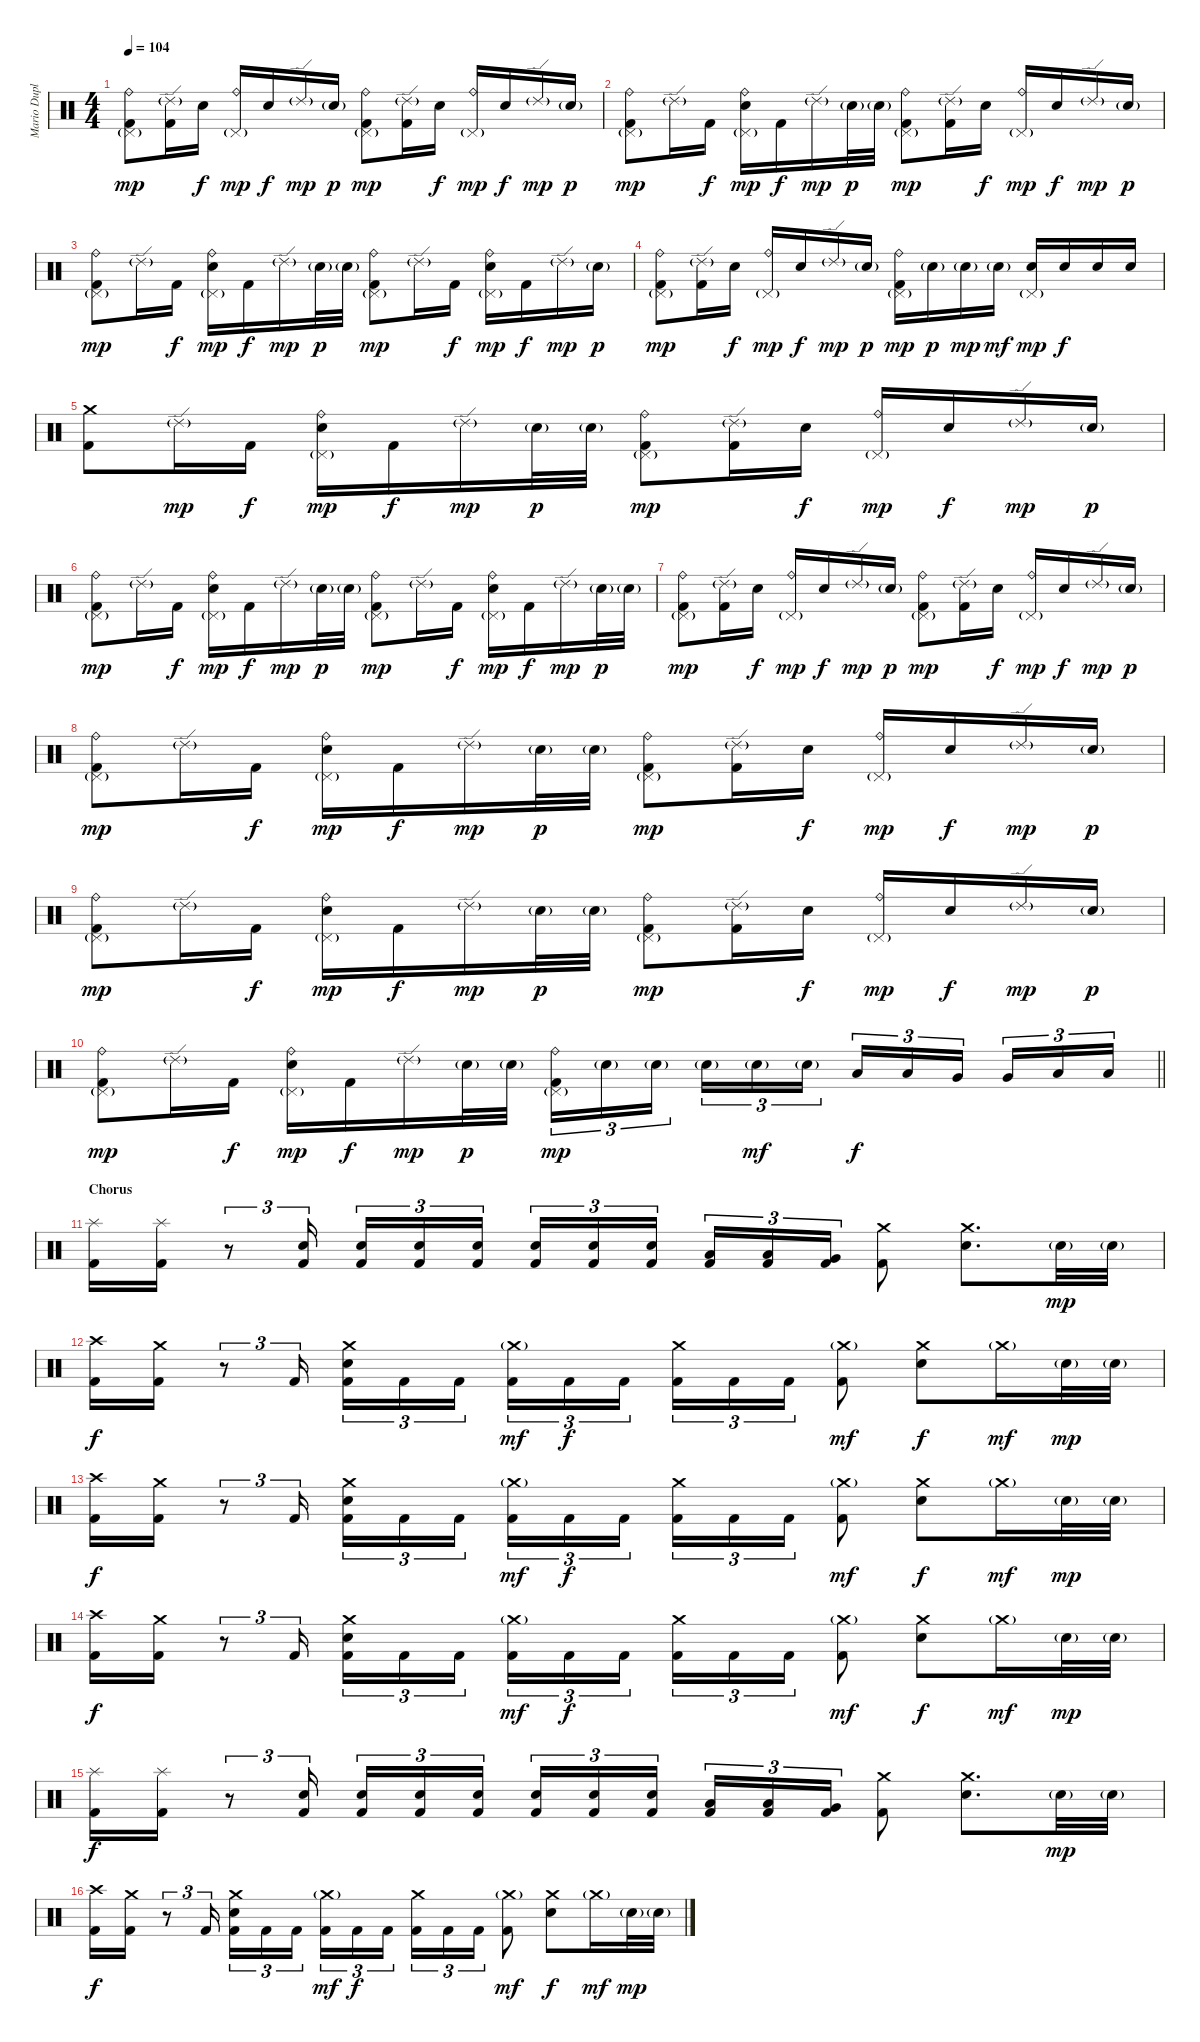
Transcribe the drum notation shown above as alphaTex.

\track ("Mario Duplantier" "Mario Dupl") {instrument percussion}
\staff {score}
\articulation defaults
\ts (4 4)
\tempo 104
\clef neutral
\ks c
("Ride (bell)" "Pedal Hi-Hat (hit)"{g} "Kick (hit) 2").8{dy mp} ("Ride (edge) 2"{g} "Kick (hit) 2").16 "Electric Snare (hit)".16{dy f} ("Ride (bell)" "Pedal Hi-Hat (hit)"{g}).16{dy mp} "Electric Snare (hit)".16{dy f} "Ride (edge) 2"{g}.16{dy mp} "Electric Snare (hit)"{g}.16{dy p} ("Ride (bell)" "Pedal Hi-Hat (hit)"{g} "Kick (hit) 2").8{dy mp} ("Ride (edge) 2"{g} "Kick (hit) 2").16 "Electric Snare (hit)".16{dy f} ("Ride (bell)" "Pedal Hi-Hat (hit)"{g}).16{dy mp} "Electric Snare (hit)".16{dy f} "Ride (edge) 2"{g}.16{dy mp} "Electric Snare (hit)"{g}.16{dy p} |
("Ride (bell)" "Pedal Hi-Hat (hit)"{g} "Kick (hit) 2").8{dy mp} "Ride (edge) 2"{g}.16 "Kick (hit) 2".16{dy f} ("Ride (bell)" "Pedal Hi-Hat (hit)"{g} "Electric Snare (hit)").16{dy mp} "Kick (hit) 2".16{dy f} "Ride (edge) 2"{g}.16{dy mp} "Electric Snare (hit)"{g}.32{dy p} "Electric Snare (hit)"{g}.32 ("Ride (bell)" "Pedal Hi-Hat (hit)"{g} "Kick (hit) 2").8{dy mp} ("Ride (edge) 2"{g} "Kick (hit) 2").16 "Electric Snare (hit)".16{dy f} ("Ride (bell)" "Pedal Hi-Hat (hit)"{g}).16{dy mp} "Electric Snare (hit)".16{dy f} "Ride (edge) 2"{g}.16{dy mp} "Electric Snare (hit)"{g}.16{dy p} |
("Ride (bell)" "Pedal Hi-Hat (hit)"{g} "Kick (hit) 2").8{dy mp} "Ride (edge) 2"{g}.16 "Kick (hit) 2".16{dy f} ("Ride (bell)" "Pedal Hi-Hat (hit)"{g} "Electric Snare (hit)").16{dy mp} "Kick (hit) 2".16{dy f} "Ride (edge) 2"{g}.16{dy mp} "Electric Snare (hit)"{g}.32{dy p} "Electric Snare (hit)"{g}.32 ("Ride (bell)" "Pedal Hi-Hat (hit)"{g} "Kick (hit) 2").8{dy mp} "Ride (edge) 2"{g}.16 "Kick (hit) 2".16{dy f} ("Ride (bell)" "Pedal Hi-Hat (hit)"{g} "Electric Snare (hit)").16{dy mp} "Kick (hit) 2".16{dy f} "Ride (edge) 2"{g}.16{dy mp} "Electric Snare (hit)"{g}.16{dy p} |
("Ride (bell)" "Pedal Hi-Hat (hit)"{g} "Kick (hit) 2").8{dy mp} ("Ride (edge) 2"{g} "Kick (hit) 2").16 "Electric Snare (hit)".16{dy f} ("Ride (bell)" "Pedal Hi-Hat (hit)"{g}).16{dy mp} "Electric Snare (hit)".16{dy f} "Ride (edge) 2"{g}.16{dy mp} "Electric Snare (hit)"{g}.16{dy p} ("Ride (bell)" "Pedal Hi-Hat (hit)"{g} "Kick (hit) 2").16{dy mp} "Electric Snare (hit)"{g}.16{dy p} "Electric Snare (hit)"{g}.16{dy mp} "Electric Snare (hit)"{g}.16{dy mf} ("Pedal Hi-Hat (hit)"{g} "Electric Snare (hit)").16{dy mp} "Electric Snare (hit)".16{dy f} "Electric Snare (hit)".16 "Electric Snare (hit)".16 |
("Crash medium (hit)" "Kick (hit) 2").8 "Ride (edge) 2"{g}.16{dy mp} "Kick (hit) 2".16{dy f} ("Ride (bell)" "Pedal Hi-Hat (hit)"{g} "Electric Snare (hit)").16{dy mp} "Kick (hit) 2".16{dy f} "Ride (edge) 2"{g}.16{dy mp} "Electric Snare (hit)"{g}.32{dy p} "Electric Snare (hit)"{g}.32 ("Ride (bell)" "Pedal Hi-Hat (hit)"{g} "Kick (hit) 2").8{dy mp} ("Ride (edge) 2"{g} "Kick (hit) 2").16 "Electric Snare (hit)".16{dy f} ("Ride (bell)" "Pedal Hi-Hat (hit)"{g}).16{dy mp} "Electric Snare (hit)".16{dy f} "Ride (edge) 2"{g}.16{dy mp} "Electric Snare (hit)"{g}.16{dy p} |
("Ride (bell)" "Pedal Hi-Hat (hit)"{g} "Kick (hit) 2").8{dy mp} "Ride (edge) 2"{g}.16 "Kick (hit) 2".16{dy f} ("Ride (bell)" "Pedal Hi-Hat (hit)"{g} "Electric Snare (hit)").16{dy mp} "Kick (hit) 2".16{dy f} "Ride (edge) 2"{g}.16{dy mp} "Electric Snare (hit)"{g}.32{dy p} "Electric Snare (hit)"{g}.32 ("Ride (bell)" "Pedal Hi-Hat (hit)"{g} "Kick (hit) 2").8{dy mp} "Ride (edge) 2"{g}.16 "Kick (hit) 2".16{dy f} ("Ride (bell)" "Pedal Hi-Hat (hit)"{g} "Electric Snare (hit)").16{dy mp} "Kick (hit) 2".16{dy f} "Ride (edge) 2"{g}.16{dy mp} "Electric Snare (hit)"{g}.32{dy p} "Electric Snare (hit)"{g}.32 |
("Ride (bell)" "Pedal Hi-Hat (hit)"{g} "Kick (hit) 2").8{dy mp} ("Ride (edge) 2"{g} "Kick (hit) 2").16 "Electric Snare (hit)".16{dy f} ("Ride (bell)" "Pedal Hi-Hat (hit)"{g}).16{dy mp} "Electric Snare (hit)".16{dy f} "Ride (edge) 2"{g}.16{dy mp} "Electric Snare (hit)"{g}.16{dy p} ("Ride (bell)" "Pedal Hi-Hat (hit)"{g} "Kick (hit) 2").8{dy mp} ("Ride (edge) 2"{g} "Kick (hit) 2").16 "Electric Snare (hit)".16{dy f} ("Ride (bell)" "Pedal Hi-Hat (hit)"{g}).16{dy mp} "Electric Snare (hit)".16{dy f} "Ride (edge) 2"{g}.16{dy mp} "Electric Snare (hit)"{g}.16{dy p} |
("Ride (bell)" "Pedal Hi-Hat (hit)"{g} "Kick (hit) 2").8{dy mp} "Ride (edge) 2"{g}.16 "Kick (hit) 2".16{dy f} ("Ride (bell)" "Pedal Hi-Hat (hit)"{g} "Electric Snare (hit)").16{dy mp} "Kick (hit) 2".16{dy f} "Ride (edge) 2"{g}.16{dy mp} "Electric Snare (hit)"{g}.32{dy p} "Electric Snare (hit)"{g}.32 ("Ride (bell)" "Pedal Hi-Hat (hit)"{g} "Kick (hit) 2").8{dy mp} ("Ride (edge) 2"{g} "Kick (hit) 2").16 "Electric Snare (hit)".16{dy f} ("Ride (bell)" "Pedal Hi-Hat (hit)"{g}).16{dy mp} "Electric Snare (hit)".16{dy f} "Ride (edge) 2"{g}.16{dy mp} "Electric Snare (hit)"{g}.16{dy p} |
("Ride (bell)" "Pedal Hi-Hat (hit)"{g} "Kick (hit) 2").8{dy mp} "Ride (edge) 2"{g}.16 "Kick (hit) 2".16{dy f} ("Ride (bell)" "Pedal Hi-Hat (hit)"{g} "Electric Snare (hit)").16{dy mp} "Kick (hit) 2".16{dy f} "Ride (edge) 2"{g}.16{dy mp} "Electric Snare (hit)"{g}.32{dy p} "Electric Snare (hit)"{g}.32 ("Ride (bell)" "Pedal Hi-Hat (hit)"{g} "Kick (hit) 2").8{dy mp} ("Ride (edge) 2"{g} "Kick (hit) 2").16 "Electric Snare (hit)".16{dy f} ("Ride (bell)" "Pedal Hi-Hat (hit)"{g}).16{dy mp} "Electric Snare (hit)".16{dy f} "Ride (edge) 2"{g}.16{dy mp} "Electric Snare (hit)"{g}.16{dy p} |
\barLineRight lightlight
("Ride (bell)" "Pedal Hi-Hat (hit)"{g} "Kick (hit) 2").8{dy mp} "Ride (edge) 2"{g}.16 "Kick (hit) 2".16{dy f} ("Ride (bell)" "Pedal Hi-Hat (hit)"{g} "Electric Snare (hit)").16{dy mp} "Kick (hit) 2".16{dy f} "Ride (edge) 2"{g}.16{dy mp} "Electric Snare (hit)"{g}.32{dy p} "Electric Snare (hit)"{g}.32 ("Ride (bell)" "Pedal Hi-Hat (hit)"{g} "Kick (hit) 2").16{tu (3 2) dy mp} "Electric Snare (hit)"{g}.16{tu (3 2)} "Electric Snare (hit)"{g}.16{tu (3 2) beam splitsecondary} "Electric Snare (hit)"{g}.16{tu (3 2)} "Electric Snare (hit)"{g}.16{tu (3 2) dy mf} "Electric Snare (hit)"{g}.16{tu (3 2)} "Low Tom (hit)".16{tu (3 2) dy f} "Low Tom (hit)".16{tu (3 2)} "Very Low Tom (hit)".16{tu (3 2) beam splitsecondary} "Very Low Tom (hit)".16{tu (3 2)} "Low Floor Tom (hit)".16{tu (3 2)} "Low Floor Tom (hit)".16{tu (3 2)} |
\section ("" "Chorus")
("Splash (hit)" "Kick (hit) 2").16 ("Splash (hit)" "Kick (hit) 2").16 r.8{tu (3 2)} ("Electric Snare (hit)" "Kick (hit) 2").16{tu (3 2)} ("Electric Snare (hit)" "Kick (hit) 2").16{tu (3 2)} ("Electric Snare (hit)" "Kick (hit) 2").16{tu (3 2)} ("Electric Snare (hit)" "Kick (hit) 2").16{tu (3 2) beam splitsecondary} ("Electric Snare (hit)" "Kick (hit) 2").16{tu (3 2)} ("Electric Snare (hit)" "Kick (hit) 2").16{tu (3 2)} ("Electric Snare (hit)" "Kick (hit) 2").16{tu (3 2)} ("Low Tom (hit)" "Kick (hit) 2").16{tu (3 2)} ("Low Tom (hit)" "Kick (hit) 2").16{tu (3 2)} ("Very Low Tom (hit)" "Kick (hit) 2").16{tu (3 2)} ("Crash medium (hit)" "Kick (hit) 2").8 ("Crash medium (hit)" "Electric Snare (hit)").8{d} "Electric Snare (hit)"{g}.32{dy mp} "Electric Snare (hit)"{g}.32 |
("Crash high (hit)" "Kick (hit) 2").16{dy f} ("Crash medium (hit)" "Kick (hit) 2").16 r.8{tu (3 2)} "Kick (hit) 2".16{tu (3 2)} ("Crash medium (hit)" "Electric Snare (hit)" "Kick (hit) 2").16{tu (3 2)} "Kick (hit) 2".16{tu (3 2)} "Kick (hit) 2".16{tu (3 2) beam splitsecondary} ("Crash medium (hit)"{g} "Kick (hit) 2").16{tu (3 2) dy mf} "Kick (hit) 2".16{tu (3 2) dy f} "Kick (hit) 2".16{tu (3 2)} ("Crash medium (hit)" "Kick (hit) 2").16{tu (3 2)} "Kick (hit) 2".16{tu (3 2)} "Kick (hit) 2".16{tu (3 2)} ("Crash medium (hit)"{g} "Kick (hit) 2").8{dy mf} ("Crash medium (hit)" "Electric Snare (hit)").8{dy f} "Crash medium (hit)"{g}.16{dy mf} "Electric Snare (hit)"{g}.32{dy mp} "Electric Snare (hit)"{g}.32 |
("Crash high (hit)" "Kick (hit) 2").16{dy f} ("Crash medium (hit)" "Kick (hit) 2").16 r.8{tu (3 2)} "Kick (hit) 2".16{tu (3 2)} ("Crash medium (hit)" "Electric Snare (hit)" "Kick (hit) 2").16{tu (3 2)} "Kick (hit) 2".16{tu (3 2)} "Kick (hit) 2".16{tu (3 2) beam splitsecondary} ("Crash medium (hit)"{g} "Kick (hit) 2").16{tu (3 2) dy mf} "Kick (hit) 2".16{tu (3 2) dy f} "Kick (hit) 2".16{tu (3 2)} ("Crash medium (hit)" "Kick (hit) 2").16{tu (3 2)} "Kick (hit) 2".16{tu (3 2)} "Kick (hit) 2".16{tu (3 2)} ("Crash medium (hit)"{g} "Kick (hit) 2").8{dy mf} ("Crash medium (hit)" "Electric Snare (hit)").8{dy f} "Crash medium (hit)"{g}.16{dy mf} "Electric Snare (hit)"{g}.32{dy mp} "Electric Snare (hit)"{g}.32 |
("Crash high (hit)" "Kick (hit) 2").16{dy f} ("Crash medium (hit)" "Kick (hit) 2").16 r.8{tu (3 2)} "Kick (hit) 2".16{tu (3 2)} ("Crash medium (hit)" "Electric Snare (hit)" "Kick (hit) 2").16{tu (3 2)} "Kick (hit) 2".16{tu (3 2)} "Kick (hit) 2".16{tu (3 2) beam splitsecondary} ("Crash medium (hit)"{g} "Kick (hit) 2").16{tu (3 2) dy mf} "Kick (hit) 2".16{tu (3 2) dy f} "Kick (hit) 2".16{tu (3 2)} ("Crash medium (hit)" "Kick (hit) 2").16{tu (3 2)} "Kick (hit) 2".16{tu (3 2)} "Kick (hit) 2".16{tu (3 2)} ("Crash medium (hit)"{g} "Kick (hit) 2").8{dy mf} ("Crash medium (hit)" "Electric Snare (hit)").8{dy f} "Crash medium (hit)"{g}.16{dy mf} "Electric Snare (hit)"{g}.32{dy mp} "Electric Snare (hit)"{g}.32 |
("Splash (hit)" "Kick (hit) 2").16{dy f} ("Splash (hit)" "Kick (hit) 2").16 r.8{tu (3 2)} ("Electric Snare (hit)" "Kick (hit) 2").16{tu (3 2)} ("Electric Snare (hit)" "Kick (hit) 2").16{tu (3 2)} ("Electric Snare (hit)" "Kick (hit) 2").16{tu (3 2)} ("Electric Snare (hit)" "Kick (hit) 2").16{tu (3 2) beam splitsecondary} ("Electric Snare (hit)" "Kick (hit) 2").16{tu (3 2)} ("Electric Snare (hit)" "Kick (hit) 2").16{tu (3 2)} ("Electric Snare (hit)" "Kick (hit) 2").16{tu (3 2)} ("Low Tom (hit)" "Kick (hit) 2").16{tu (3 2)} ("Low Tom (hit)" "Kick (hit) 2").16{tu (3 2)} ("Very Low Tom (hit)" "Kick (hit) 2").16{tu (3 2)} ("Crash medium (hit)" "Kick (hit) 2").8 ("Crash medium (hit)" "Electric Snare (hit)").8{d} "Electric Snare (hit)"{g}.32{dy mp} "Electric Snare (hit)"{g}.32 |
("Crash high (hit)" "Kick (hit) 2").16{dy f} ("Crash medium (hit)" "Kick (hit) 2").16 r.8{tu (3 2)} "Kick (hit) 2".16{tu (3 2)} ("Crash medium (hit)" "Electric Snare (hit)" "Kick (hit) 2").16{tu (3 2)} "Kick (hit) 2".16{tu (3 2)} "Kick (hit) 2".16{tu (3 2) beam splitsecondary} ("Crash medium (hit)"{g} "Kick (hit) 2").16{tu (3 2) dy mf} "Kick (hit) 2".16{tu (3 2) dy f} "Kick (hit) 2".16{tu (3 2)} ("Crash medium (hit)" "Kick (hit) 2").16{tu (3 2)} "Kick (hit) 2".16{tu (3 2)} "Kick (hit) 2".16{tu (3 2)} ("Crash medium (hit)"{g} "Kick (hit) 2").8{dy mf} ("Crash medium (hit)" "Electric Snare (hit)").8{dy f} "Crash medium (hit)"{g}.16{dy mf} "Electric Snare (hit)"{g}.32{dy mp} "Electric Snare (hit)"{g}.32
